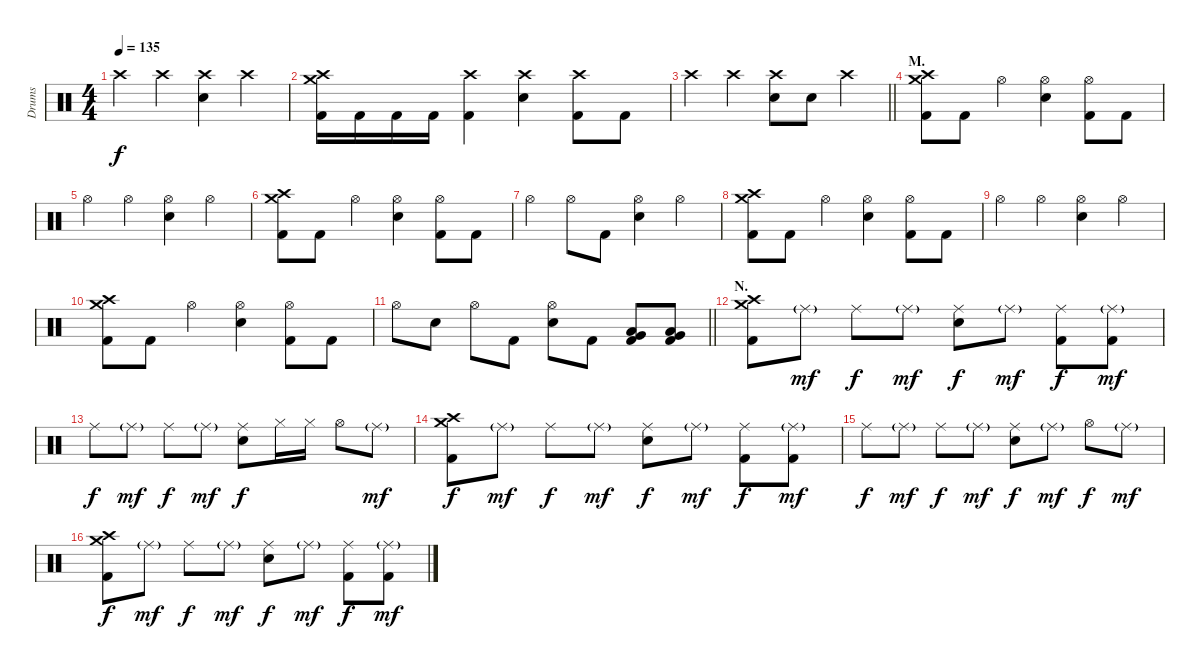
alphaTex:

\track ("Drums" "Drums") {instrument percussion}
\staff {score}
\articulation defaults
\ts (4 4)
\tempo 135
\clef neutral
\ks c "Crash high (hit)".4{dy f} "Crash high (hit)".4
("Crash high (hit)" "Electric Snare (hit)").4 "Crash high (hit)".4 |
("Crash medium (hit)" "Crash high (hit)" "Kick (hit) 2").16 "Kick (hit) 2".16 "Kick (hit) 2".16 "Kick (hit) 2".16 ("Crash high (hit)" "Kick (hit) 2").4 ("Crash high (hit)" "Electric Snare (hit)").4 ("Crash high (hit)" "Kick (hit) 2").8 "Kick (hit) 2".8 |
\barLineRight lightlight "Crash high (hit)".4 "Crash high (hit)".4
("Crash high (hit)" "Electric Snare (hit)").8 "Electric Snare (hit)".8 "Crash high (hit)".4 |
\section ("" "M.")
("Crash medium (hit)" "Crash high (hit)" "Kick (hit) 2").8 "Kick (hit) 2".8 "Hi-Hat (open)".4 ("Hi-Hat (open)" "Electric Snare (hit)").4 ("Hi-Hat (open)" "Kick (hit) 2").8 "Kick (hit) 2".8 |
"Hi-Hat (open)".4 "Hi-Hat (open)".4 ("Hi-Hat (open)" "Electric Snare (hit)").4 "Hi-Hat (open)".4 |
("Crash medium (hit)" "Crash high (hit)" "Kick (hit) 2").8 "Kick (hit) 2".8 "Hi-Hat (open)".4 ("Hi-Hat (open)" "Electric Snare (hit)").4 ("Hi-Hat (open)" "Kick (hit) 2").8 "Kick (hit) 2".8 |
"Hi-Hat (open)".4 "Hi-Hat (open)".8 "Kick (hit) 2".8 ("Hi-Hat (open)" "Electric Snare (hit)").4 "Hi-Hat (open)".4 |
("Crash medium (hit)" "Crash high (hit)" "Kick (hit) 2").8 "Kick (hit) 2".8 "Hi-Hat (open)".4 ("Hi-Hat (open)" "Electric Snare (hit)").4 ("Hi-Hat (open)" "Kick (hit) 2").8 "Kick (hit) 2".8 |
"Hi-Hat (open)".4 "Hi-Hat (open)".4 ("Hi-Hat (open)" "Electric Snare (hit)").4 "Hi-Hat (open)".4 |
("Crash medium (hit)" "Crash high (hit)" "Kick (hit) 2").8 "Kick (hit) 2".8 "Hi-Hat (open)".4 ("Hi-Hat (open)" "Electric Snare (hit)").4 ("Hi-Hat (open)" "Kick (hit) 2").8 "Kick (hit) 2".8 |
\barLineRight lightlight "Hi-Hat (open)".8 "Electric Snare (hit)".8 "Hi-Hat (open)".8 "Kick (hit) 2".8
("Hi-Hat (open)" "Electric Snare (hit)").8 "Kick (hit) 2".8 ("Low Tom (hit)" "Very Low Tom (hit)" "Kick (hit) 2").8 ("Very Low Tom (hit)" "Low Floor Tom (hit)" "Kick (hit) 2").8 |
\section ("" "N.")
("Crash medium (hit)" "Crash high (hit)" "Kick (hit) 2").8 "Ride (middle)"{g}.8{dy mf} "Ride (middle)".8{dy f} "Ride (middle)"{g}.8{dy mf} ("Ride (middle)" "Electric Snare (hit)").8{dy f} "Ride (middle)"{g}.8{dy mf} ("Ride (middle)" "Kick (hit) 2").8{dy f} ("Ride (middle)"{g} "Kick (hit) 2").8{dy mf} |
"Ride (middle)".8{dy f} "Ride (middle)"{g}.8{dy mf} "Ride (middle)".8{dy f} "Ride (middle)"{g}.8{dy mf} ("Ride (middle)" "Electric Snare (hit)").8{dy f} "Hi-Hat (closed)".16 "Hi-Hat (closed)".16 "Hi-Hat (open)".8 "Ride (middle)"{g}.8{dy mf} |
("Crash medium (hit)" "Crash high (hit)" "Kick (hit) 2").8{dy f} "Ride (middle)"{g}.8{dy mf} "Ride (middle)".8{dy f} "Ride (middle)"{g}.8{dy mf} ("Ride (middle)" "Electric Snare (hit)").8{dy f} "Ride (middle)"{g}.8{dy mf} ("Ride (middle)" "Kick (hit) 2").8{dy f} ("Ride (middle)"{g} "Kick (hit) 2").8{dy mf} |
"Ride (middle)".8{dy f} "Ride (middle)"{g}.8{dy mf} "Ride (middle)".8{dy f} "Ride (middle)"{g}.8{dy mf} ("Ride (middle)" "Electric Snare (hit)").8{dy f} "Ride (middle)"{g}.8{dy mf} "Hi-Hat (open)".8{dy f} "Ride (middle)"{g}.8{dy mf} |
("Crash medium (hit)" "Crash high (hit)" "Kick (hit) 2").8{dy f} "Ride (middle)"{g}.8{dy mf} "Ride (middle)".8{dy f} "Ride (middle)"{g}.8{dy mf} ("Ride (middle)" "Electric Snare (hit)").8{dy f} "Ride (middle)"{g}.8{dy mf} ("Ride (middle)" "Kick (hit) 2").8{dy f} ("Ride (middle)"{g} "Kick (hit) 2").8{dy mf}
